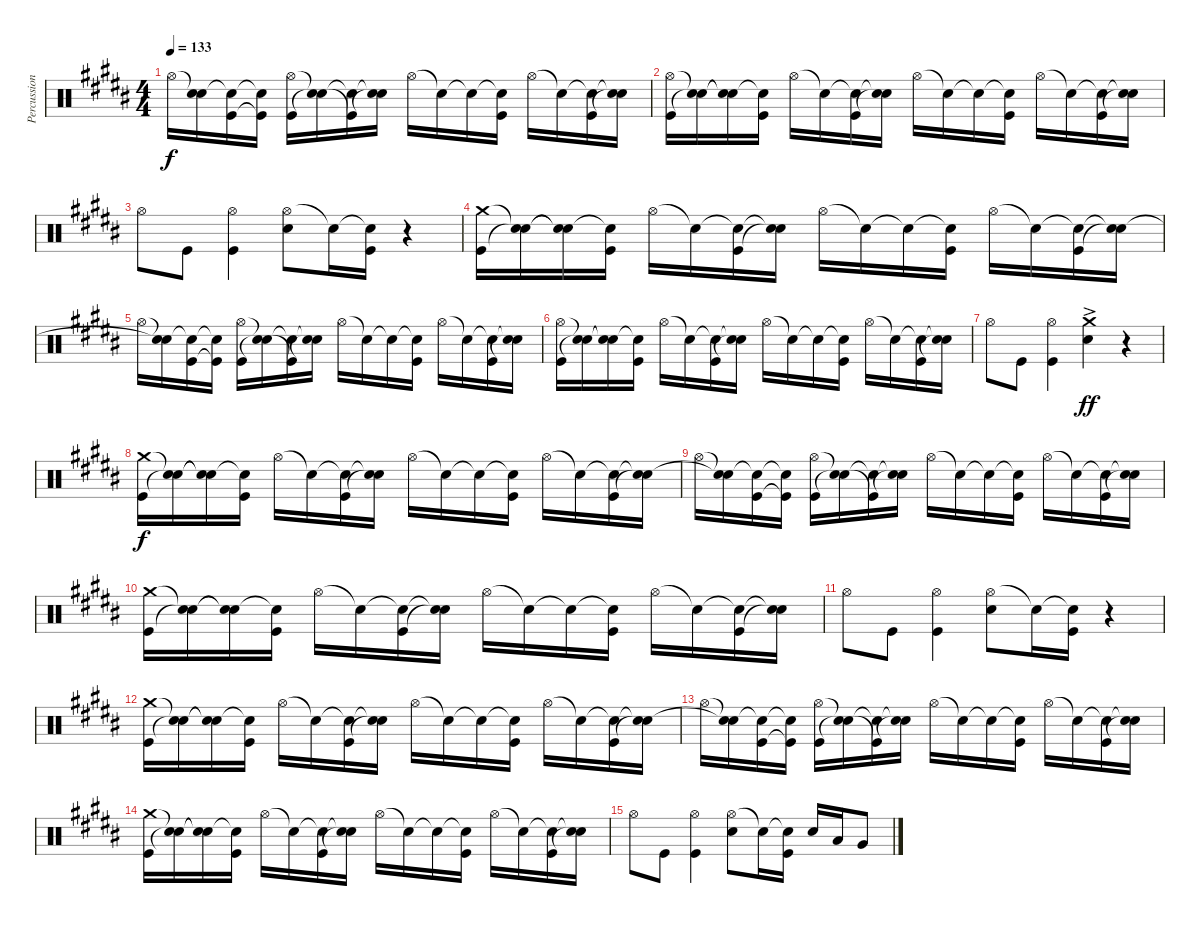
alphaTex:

\track ("Percussion" "Percussion") {instrument percussion}
\staff {score}
\articulation defaults
\ts (4 4)
\tempo 133
\clef neutral
\ks b "Hi-Hat (open)".16{dy f}
("Snare (hit)"{t} "Snare (hit)"{t}).16 ("Snare (hit)"{t} "Kick (hit)").16 ("Snare (hit)"{t} "Kick (hit)"{t}).16 ("Hi-Hat (open)" "Kick (hit)").16 ("Snare (hit)"{t} "Snare (hit)"{t}).16 ("Snare (hit)"{t} "Kick (hit)"{t}).16 ("Snare (hit)"{t} "Snare (hit)"{t}).16 "Hi-Hat (open)".16 "Snare (hit)"{t}.16 "Snare (hit)"{t}.16 ("Snare (hit)"{t} "Kick (hit)").16 "Hi-Hat (open)".16 "Snare (hit)"{t}.16 ("Snare (hit)"{t} "Kick (hit)").16 ("Snare (hit)"{t} "Snare (hit)"{t}).16 |
("Hi-Hat (open)" "Kick (hit)").16 ("Snare (hit)"{t} "Snare (hit)"{t}).16 ("Snare (hit)"{t} "Snare (hit)"{t}).16 ("Snare (hit)"{t} "Kick (hit)").16 "Hi-Hat (open)".16 "Snare (hit)"{t}.16 ("Snare (hit)"{t} "Kick (hit)").16 ("Snare (hit)"{t} "Snare (hit)"{t}).16 "Hi-Hat (open)".16 "Snare (hit)"{t}.16 "Snare (hit)"{t}.16 ("Snare (hit)"{t} "Kick (hit)").16 "Hi-Hat (open)".16 "Snare (hit)"{t}.16 ("Snare (hit)"{t} "Kick (hit)").16 ("Snare (hit)"{t} "Snare (hit)"{t}).16 |
"Hi-Hat (open)".8 "Kick (hit)".8 ("Hi-Hat (open)" "Kick (hit)").4 ("Hi-Hat (open)" "Electric Snare (hit)").8 "Snare (hit)"{t}.16 ("Snare (hit)"{t} "Kick (hit)").16 r.4 |
("Crash medium (hit)" "Kick (hit)").16 ("Snare (hit)"{t} "Snare (hit)"{t}).16 ("Snare (hit)"{t} "Snare (hit)"{t}).16 ("Snare (hit)"{t} "Kick (hit)").16 "Hi-Hat (open)".16 "Snare (hit)"{t}.16 ("Snare (hit)"{t} "Kick (hit)").16 ("Snare (hit)"{t} "Snare (hit)"{t}).16 "Hi-Hat (open)".16 "Snare (hit)"{t}.16 "Snare (hit)"{t}.16 ("Snare (hit)"{t} "Kick (hit)").16 "Hi-Hat (open)".16 "Snare (hit)"{t}.16 ("Snare (hit)"{t} "Kick (hit)").16 ("Snare (hit)"{t} "Snare (hit)"{t}).16 |
"Hi-Hat (open)".16 ("Snare (hit)"{t} "Snare (hit)"{t}).16 ("Snare (hit)"{t} "Kick (hit)").16 ("Snare (hit)"{t} "Kick (hit)"{t}).16 ("Hi-Hat (open)" "Kick (hit)").16 ("Snare (hit)"{t} "Snare (hit)"{t}).16 ("Snare (hit)"{t} "Kick (hit)"{t}).16 ("Snare (hit)"{t} "Snare (hit)"{t}).16 "Hi-Hat (open)".16 "Snare (hit)"{t}.16 "Snare (hit)"{t}.16 ("Snare (hit)"{t} "Kick (hit)").16 "Hi-Hat (open)".16 "Snare (hit)"{t}.16 ("Snare (hit)"{t} "Kick (hit)").16 ("Snare (hit)"{t} "Snare (hit)"{t}).16 |
("Hi-Hat (open)" "Kick (hit)").16 ("Snare (hit)"{t} "Snare (hit)"{t}).16 ("Snare (hit)"{t} "Snare (hit)"{t}).16 ("Snare (hit)"{t} "Kick (hit)").16 "Hi-Hat (open)".16 "Snare (hit)"{t}.16 ("Snare (hit)"{t} "Kick (hit)").16 ("Snare (hit)"{t} "Snare (hit)"{t}).16 "Hi-Hat (open)".16 "Snare (hit)"{t}.16 "Snare (hit)"{t}.16 ("Snare (hit)"{t} "Kick (hit)").16 "Hi-Hat (open)".16 "Snare (hit)"{t}.16 ("Snare (hit)"{t} "Kick (hit)").16 ("Snare (hit)"{t} "Snare (hit)"{t}).16 |
"Hi-Hat (open)".8 "Kick (hit)".8 ("Hi-Hat (open)" "Kick (hit)").4 ("Crash medium (hit)"{ac} "Electric Snare (hit)"{ac}).4{dy ff} r.4 |
("Crash medium (hit)" "Kick (hit)").16{dy f} ("Snare (hit)"{t} "Snare (hit)"{t}).16 ("Snare (hit)"{t} "Snare (hit)"{t}).16 ("Snare (hit)"{t} "Kick (hit)").16 "Hi-Hat (open)".16 "Snare (hit)"{t}.16 ("Snare (hit)"{t} "Kick (hit)").16 ("Snare (hit)"{t} "Snare (hit)"{t}).16 "Hi-Hat (open)".16 "Snare (hit)"{t}.16 "Snare (hit)"{t}.16 ("Snare (hit)"{t} "Kick (hit)").16 "Hi-Hat (open)".16 "Snare (hit)"{t}.16 ("Snare (hit)"{t} "Kick (hit)").16 ("Snare (hit)"{t} "Snare (hit)"{t}).16 |
"Hi-Hat (open)".16 ("Snare (hit)"{t} "Snare (hit)"{t}).16 ("Snare (hit)"{t} "Kick (hit)").16 ("Snare (hit)"{t} "Kick (hit)"{t}).16 ("Hi-Hat (open)" "Kick (hit)").16 ("Snare (hit)"{t} "Snare (hit)"{t}).16 ("Snare (hit)"{t} "Kick (hit)"{t}).16 ("Snare (hit)"{t} "Snare (hit)"{t}).16 "Hi-Hat (open)".16 "Snare (hit)"{t}.16 "Snare (hit)"{t}.16 ("Snare (hit)"{t} "Kick (hit)").16 "Hi-Hat (open)".16 "Snare (hit)"{t}.16 ("Snare (hit)"{t} "Kick (hit)").16 ("Snare (hit)"{t} "Snare (hit)"{t}).16 |
("Crash medium (hit)" "Kick (hit)").16 ("Snare (hit)"{t} "Snare (hit)"{t}).16 ("Snare (hit)"{t} "Snare (hit)"{t}).16 ("Snare (hit)"{t} "Kick (hit)").16 "Hi-Hat (open)".16 "Snare (hit)"{t}.16 ("Snare (hit)"{t} "Kick (hit)").16 ("Snare (hit)"{t} "Snare (hit)"{t}).16 "Hi-Hat (open)".16 "Snare (hit)"{t}.16 "Snare (hit)"{t}.16 ("Snare (hit)"{t} "Kick (hit)").16 "Hi-Hat (open)".16 "Snare (hit)"{t}.16 ("Snare (hit)"{t} "Kick (hit)").16 ("Snare (hit)"{t} "Snare (hit)"{t}).16 |
"Hi-Hat (open)".8 "Kick (hit)".8 ("Hi-Hat (open)" "Kick (hit)").4 ("Hi-Hat (open)" "Electric Snare (hit)").8 "Snare (hit)"{t}.16 ("Snare (hit)"{t} "Kick (hit)").16 r.4 |
("Crash medium (hit)" "Kick (hit)").16 ("Snare (hit)"{t} "Snare (hit)"{t}).16 ("Snare (hit)"{t} "Snare (hit)"{t}).16 ("Snare (hit)"{t} "Kick (hit)").16 "Hi-Hat (open)".16 "Snare (hit)"{t}.16 ("Snare (hit)"{t} "Kick (hit)").16 ("Snare (hit)"{t} "Snare (hit)"{t}).16 "Hi-Hat (open)".16 "Snare (hit)"{t}.16 "Snare (hit)"{t}.16 ("Snare (hit)"{t} "Kick (hit)").16 "Hi-Hat (open)".16 "Snare (hit)"{t}.16 ("Snare (hit)"{t} "Kick (hit)").16 ("Snare (hit)"{t} "Snare (hit)"{t}).16 |
"Hi-Hat (open)".16 ("Snare (hit)"{t} "Snare (hit)"{t}).16 ("Snare (hit)"{t} "Kick (hit)").16 ("Snare (hit)"{t} "Kick (hit)"{t}).16 ("Hi-Hat (open)" "Kick (hit)").16 ("Snare (hit)"{t} "Snare (hit)"{t}).16 ("Snare (hit)"{t} "Kick (hit)"{t}).16 ("Snare (hit)"{t} "Snare (hit)"{t}).16 "Hi-Hat (open)".16 "Snare (hit)"{t}.16 "Snare (hit)"{t}.16 ("Snare (hit)"{t} "Kick (hit)").16 "Hi-Hat (open)".16 "Snare (hit)"{t}.16 ("Snare (hit)"{t} "Kick (hit)").16 ("Snare (hit)"{t} "Snare (hit)"{t}).16 |
("Crash medium (hit)" "Kick (hit)").16 ("Snare (hit)"{t} "Snare (hit)"{t}).16 ("Snare (hit)"{t} "Snare (hit)"{t}).16 ("Snare (hit)"{t} "Kick (hit)").16 "Hi-Hat (open)".16 "Snare (hit)"{t}.16 ("Snare (hit)"{t} "Kick (hit)").16 ("Snare (hit)"{t} "Snare (hit)"{t}).16 "Hi-Hat (open)".16 "Snare (hit)"{t}.16 "Snare (hit)"{t}.16 ("Snare (hit)"{t} "Kick (hit)").16 "Hi-Hat (open)".16 "Snare (hit)"{t}.16 ("Snare (hit)"{t} "Kick (hit)").16 ("Snare (hit)"{t} "Snare (hit)"{t}).16 |
"Hi-Hat (open)".8 "Kick (hit)".8 ("Hi-Hat (open)" "Kick (hit)").4 ("Hi-Hat (open)" "Electric Snare (hit)").8 "Snare (hit)"{t}.16 ("Snare (hit)"{t} "Kick (hit)").16 "Electric Snare (hit)".16 "Low Tom (hit)".16 "Very Low Tom (hit)".8
